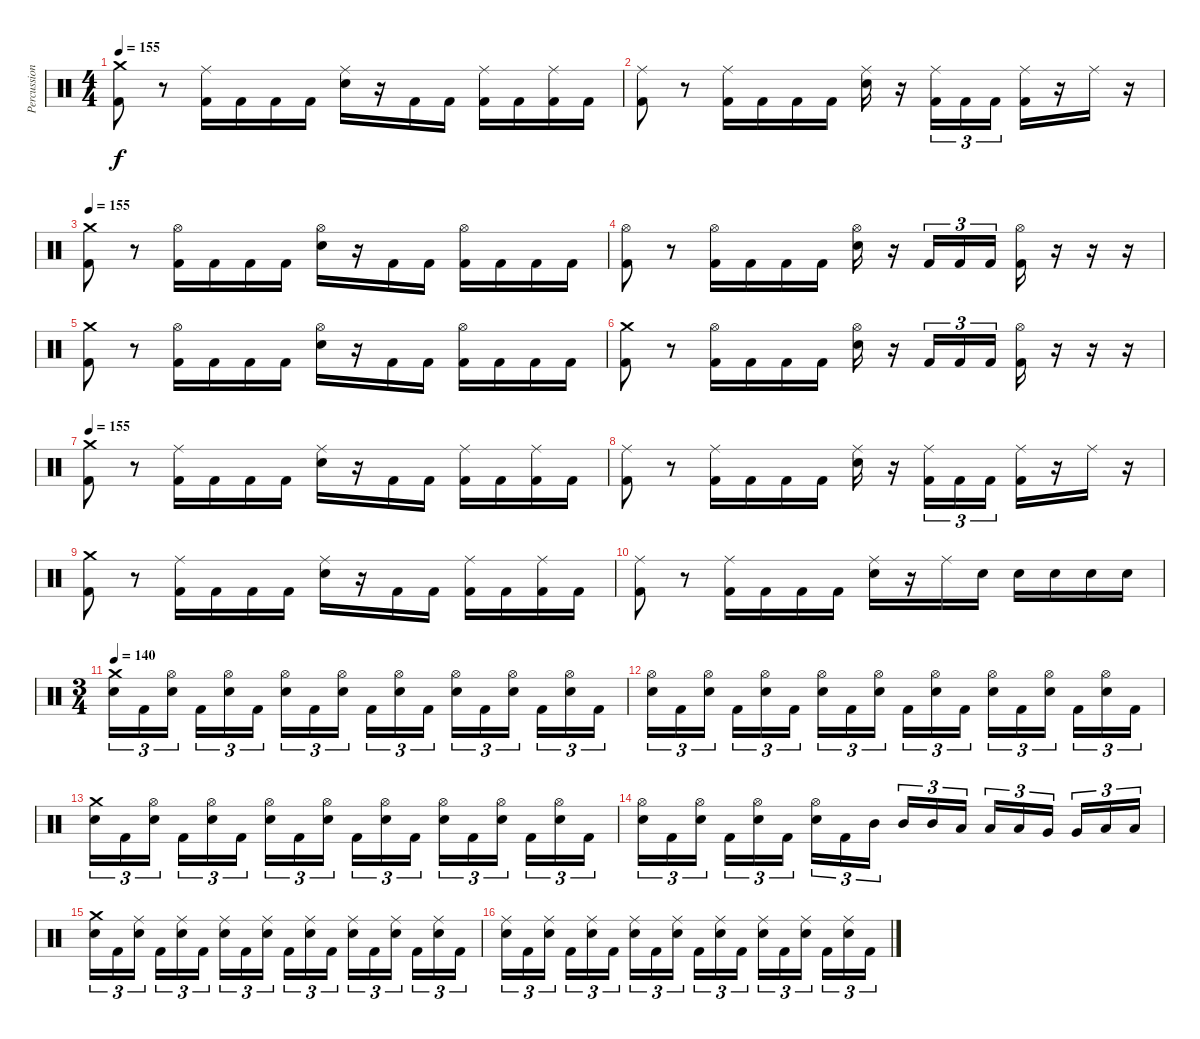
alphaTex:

\track ("Percussion" "Percussion") {instrument percussion}
\staff {score}
\articulation defaults
\ts (4 4)
\tempo 155
\clef neutral
\ks c
("Crash medium (hit)" "Kick (hit) 2").8{dy f} r.8 ("Ride (middle)" "Kick (hit) 2").16 "Kick (hit) 2".16 "Kick (hit) 2".16 "Kick (hit) 2".16 ("Ride (middle)" "Electric Snare (hit)").16 r.16 "Kick (hit) 2".16 "Kick (hit) 2".16 ("Ride (middle)" "Kick (hit) 2").16 "Kick (hit) 2".16 ("Ride (middle)" "Kick (hit) 2").16 "Kick (hit) 2".16 |
("Ride (middle)" "Kick (hit) 2").8 r.8 ("Ride (middle)" "Kick (hit) 2").16 "Kick (hit) 2".16 "Kick (hit) 2".16 "Kick (hit) 2".16 ("Ride (middle)" "Electric Snare (hit)").16 r.16 ("Ride (middle)" "Kick (hit) 2").16{tu (3 2)} "Kick (hit) 2".16{tu (3 2)} "Kick (hit) 2".16{tu (3 2)} ("Ride (middle)" "Kick (hit) 2").16 r.16 "Ride (middle)".16 r.16 |
\tempo 155
("Crash medium (hit)" "Kick (hit) 2").8 r.8 ("Hi-Hat (open)" "Kick (hit) 2").16 "Kick (hit) 2".16 "Kick (hit) 2".16 "Kick (hit) 2".16 ("Hi-Hat (open)" "Electric Snare (hit)").16 r.16 "Kick (hit) 2".16 "Kick (hit) 2".16 ("Hi-Hat (open)" "Kick (hit) 2").16 "Kick (hit) 2".16 "Kick (hit) 2".16 "Kick (hit) 2".16 |
("Hi-Hat (open)" "Kick (hit) 2").8 r.8 ("Hi-Hat (open)" "Kick (hit) 2").16 "Kick (hit) 2".16 "Kick (hit) 2".16 "Kick (hit) 2".16 ("Hi-Hat (open)" "Electric Snare (hit)").16 r.16 "Kick (hit) 2".16{tu (3 2)} "Kick (hit) 2".16{tu (3 2)} "Kick (hit) 2".16{tu (3 2)} ("Hi-Hat (open)" "Kick (hit) 2").16 r.16 r.16 r.16 |
("Crash medium (hit)" "Kick (hit) 2").8 r.8 ("Hi-Hat (open)" "Kick (hit) 2").16 "Kick (hit) 2".16 "Kick (hit) 2".16 "Kick (hit) 2".16 ("Hi-Hat (open)" "Electric Snare (hit)").16 r.16 "Kick (hit) 2".16 "Kick (hit) 2".16 ("Hi-Hat (open)" "Kick (hit) 2").16 "Kick (hit) 2".16 "Kick (hit) 2".16 "Kick (hit) 2".16 |
("Crash medium (hit)" "Kick (hit) 2").8 r.8 ("Hi-Hat (open)" "Kick (hit) 2").16 "Kick (hit) 2".16 "Kick (hit) 2".16 "Kick (hit) 2".16 ("Hi-Hat (open)" "Electric Snare (hit)").16 r.16 "Kick (hit) 2".16{tu (3 2)} "Kick (hit) 2".16{tu (3 2)} "Kick (hit) 2".16{tu (3 2)} ("Hi-Hat (open)" "Kick (hit) 2").16 r.16 r.16 r.16 |
\tempo 155
("Crash medium (hit)" "Kick (hit) 2").8 r.8 ("Ride (middle)" "Kick (hit) 2").16 "Kick (hit) 2".16 "Kick (hit) 2".16 "Kick (hit) 2".16 ("Ride (middle)" "Electric Snare (hit)").16 r.16 "Kick (hit) 2".16 "Kick (hit) 2".16 ("Ride (middle)" "Kick (hit) 2").16 "Kick (hit) 2".16 ("Ride (middle)" "Kick (hit) 2").16 "Kick (hit) 2".16 |
("Ride (middle)" "Kick (hit) 2").8 r.8 ("Ride (middle)" "Kick (hit) 2").16 "Kick (hit) 2".16 "Kick (hit) 2".16 "Kick (hit) 2".16 ("Ride (middle)" "Electric Snare (hit)").16 r.16 ("Ride (middle)" "Kick (hit) 2").16{tu (3 2)} "Kick (hit) 2".16{tu (3 2)} "Kick (hit) 2".16{tu (3 2)} ("Ride (middle)" "Kick (hit) 2").16 r.16 "Ride (middle)".16 r.16 |
("Crash medium (hit)" "Kick (hit) 2").8 r.8 ("Ride (middle)" "Kick (hit) 2").16 "Kick (hit) 2".16 "Kick (hit) 2".16 "Kick (hit) 2".16 ("Ride (middle)" "Electric Snare (hit)").16 r.16 "Kick (hit) 2".16 "Kick (hit) 2".16 ("Ride (middle)" "Kick (hit) 2").16 "Kick (hit) 2".16 ("Ride (middle)" "Kick (hit) 2").16 "Kick (hit) 2".16 |
("Ride (middle)" "Kick (hit) 2").8 r.8 ("Ride (middle)" "Kick (hit) 2").16 "Kick (hit) 2".16 "Kick (hit) 2".16 "Kick (hit) 2".16 ("Ride (middle)" "Electric Snare (hit)").16 r.16 "Ride (middle)".16 "Electric Snare (hit)".16 "Electric Snare (hit)".16 "Electric Snare (hit)".16 "Electric Snare (hit)".16 "Electric Snare (hit)".16 |
\ts (3 4)
\tempo 140
("Crash medium (hit)" "Electric Snare (hit)").16{tu (3 2)} "Kick (hit) 2".16{tu (3 2)} ("Hi-Hat (open)" "Electric Snare (hit)").16{tu (3 2)} "Kick (hit) 2".16{tu (3 2)} ("Hi-Hat (open)" "Electric Snare (hit)").16{tu (3 2)} "Kick (hit) 2".16{tu (3 2)} ("Hi-Hat (open)" "Electric Snare (hit)").16{tu (3 2)} "Kick (hit) 2".16{tu (3 2)} ("Hi-Hat (open)" "Electric Snare (hit)").16{tu (3 2)} "Kick (hit) 2".16{tu (3 2)} ("Hi-Hat (open)" "Electric Snare (hit)").16{tu (3 2)} "Kick (hit) 2".16{tu (3 2)} ("Hi-Hat (open)" "Electric Snare (hit)").16{tu (3 2)} "Kick (hit) 2".16{tu (3 2)} ("Hi-Hat (open)" "Electric Snare (hit)").16{tu (3 2)} "Kick (hit) 2".16{tu (3 2)} ("Hi-Hat (open)" "Electric Snare (hit)").16{tu (3 2)} "Kick (hit) 2".16{tu (3 2)} |
("Hi-Hat (open)" "Electric Snare (hit)").16{tu (3 2)} "Kick (hit) 2".16{tu (3 2)} ("Hi-Hat (open)" "Electric Snare (hit)").16{tu (3 2)} "Kick (hit) 2".16{tu (3 2)} ("Hi-Hat (open)" "Electric Snare (hit)").16{tu (3 2)} "Kick (hit) 2".16{tu (3 2)} ("Hi-Hat (open)" "Electric Snare (hit)").16{tu (3 2)} "Kick (hit) 2".16{tu (3 2)} ("Hi-Hat (open)" "Electric Snare (hit)").16{tu (3 2)} "Kick (hit) 2".16{tu (3 2)} ("Hi-Hat (open)" "Electric Snare (hit)").16{tu (3 2)} "Kick (hit) 2".16{tu (3 2)} ("Hi-Hat (open)" "Electric Snare (hit)").16{tu (3 2)} "Kick (hit) 2".16{tu (3 2)} ("Hi-Hat (open)" "Electric Snare (hit)").16{tu (3 2)} "Kick (hit) 2".16{tu (3 2)} ("Hi-Hat (open)" "Electric Snare (hit)").16{tu (3 2)} "Kick (hit) 2".16{tu (3 2)} |
("Crash medium (hit)" "Electric Snare (hit)").16{tu (3 2)} "Kick (hit) 2".16{tu (3 2)} ("Hi-Hat (open)" "Electric Snare (hit)").16{tu (3 2)} "Kick (hit) 2".16{tu (3 2)} ("Hi-Hat (open)" "Electric Snare (hit)").16{tu (3 2)} "Kick (hit) 2".16{tu (3 2)} ("Hi-Hat (open)" "Electric Snare (hit)").16{tu (3 2)} "Kick (hit) 2".16{tu (3 2)} ("Hi-Hat (open)" "Electric Snare (hit)").16{tu (3 2)} "Kick (hit) 2".16{tu (3 2)} ("Hi-Hat (open)" "Electric Snare (hit)").16{tu (3 2)} "Kick (hit) 2".16{tu (3 2)} ("Hi-Hat (open)" "Electric Snare (hit)").16{tu (3 2)} "Kick (hit) 2".16{tu (3 2)} ("Hi-Hat (open)" "Electric Snare (hit)").16{tu (3 2)} "Kick (hit) 2".16{tu (3 2)} ("Hi-Hat (open)" "Electric Snare (hit)").16{tu (3 2)} "Kick (hit) 2".16{tu (3 2)} |
("Hi-Hat (open)" "Electric Snare (hit)").16{tu (3 2)} "Kick (hit) 2".16{tu (3 2)} ("Hi-Hat (open)" "Electric Snare (hit)").16{tu (3 2)} "Kick (hit) 2".16{tu (3 2)} ("Hi-Hat (open)" "Electric Snare (hit)").16{tu (3 2)} "Kick (hit) 2".16{tu (3 2)} ("Hi-Hat (open)" "Electric Snare (hit)").16{tu (3 2)} "Kick (hit) 2".16{tu (3 2)} "Mid Tom (hit)".16{tu (3 2)} "Mid Tom (hit)".16{tu (3 2)} "Mid Tom (hit)".16{tu (3 2)} "Low Tom (hit)".16{tu (3 2)} "Low Tom (hit)".16{tu (3 2)} "Low Tom (hit)".16{tu (3 2)} "Very Low Tom (hit)".16{tu (3 2)} "Very Low Tom (hit)".16{tu (3 2)} "Low Floor Tom (hit)".16{tu (3 2)} "Low Floor Tom (hit)".16{tu (3 2)} |
("Crash medium (hit)" "Electric Snare (hit)").16{tu (3 2)} "Kick (hit) 2".16{tu (3 2)} ("Ride (middle)" "Electric Snare (hit)").16{tu (3 2)} "Kick (hit) 2".16{tu (3 2)} ("Ride (middle)" "Electric Snare (hit)").16{tu (3 2)} "Kick (hit) 2".16{tu (3 2)} ("Ride (middle)" "Electric Snare (hit)").16{tu (3 2)} "Kick (hit) 2".16{tu (3 2)} ("Ride (middle)" "Electric Snare (hit)").16{tu (3 2)} "Kick (hit) 2".16{tu (3 2)} ("Ride (middle)" "Electric Snare (hit)").16{tu (3 2)} "Kick (hit) 2".16{tu (3 2)} ("Ride (middle)" "Electric Snare (hit)").16{tu (3 2)} "Kick (hit) 2".16{tu (3 2)} ("Ride (middle)" "Electric Snare (hit)").16{tu (3 2)} "Kick (hit) 2".16{tu (3 2)} ("Ride (middle)" "Electric Snare (hit)").16{tu (3 2)} "Kick (hit) 2".16{tu (3 2)} |
("Ride (middle)" "Electric Snare (hit)").16{tu (3 2)} "Kick (hit) 2".16{tu (3 2)} ("Ride (middle)" "Electric Snare (hit)").16{tu (3 2)} "Kick (hit) 2".16{tu (3 2)} ("Ride (middle)" "Electric Snare (hit)").16{tu (3 2)} "Kick (hit) 2".16{tu (3 2)} ("Ride (middle)" "Electric Snare (hit)").16{tu (3 2)} "Kick (hit) 2".16{tu (3 2)} ("Ride (middle)" "Electric Snare (hit)").16{tu (3 2)} "Kick (hit) 2".16{tu (3 2)} ("Ride (middle)" "Electric Snare (hit)").16{tu (3 2)} "Kick (hit) 2".16{tu (3 2)} ("Ride (middle)" "Electric Snare (hit)").16{tu (3 2)} "Kick (hit) 2".16{tu (3 2)} ("Ride (middle)" "Electric Snare (hit)").16{tu (3 2)} "Kick (hit) 2".16{tu (3 2)} ("Ride (middle)" "Electric Snare (hit)").16{tu (3 2)} "Kick (hit) 2".16{tu (3 2)}
